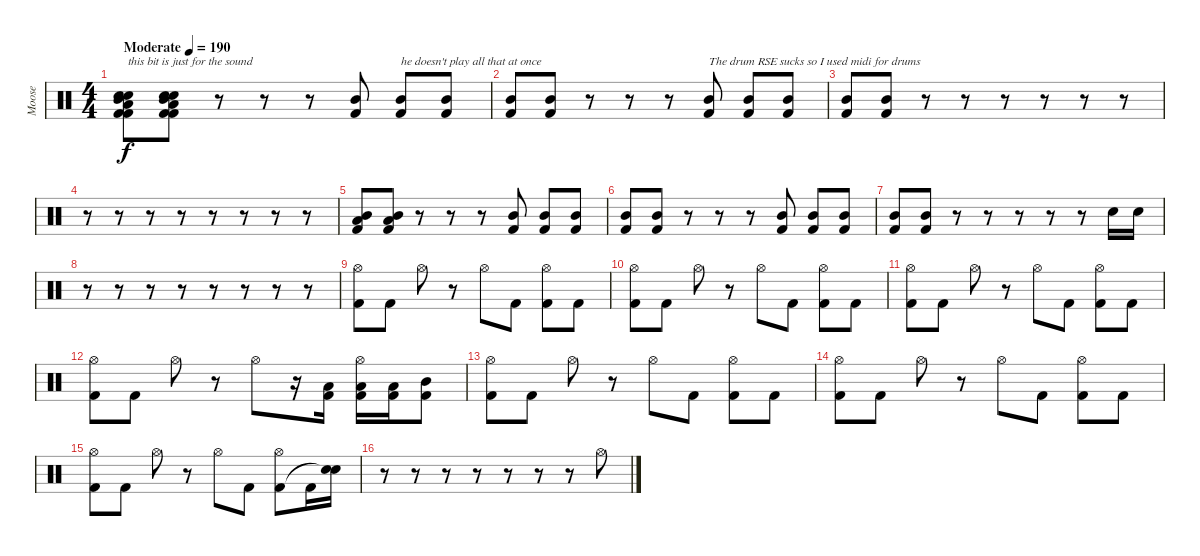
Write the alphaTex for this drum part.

\track ("Moose" "Moose") {instrument percussion}
\staff {score}
\articulation defaults
\ts (4 4)
\tempo (190 "Moderate")
\clef neutral
\ks c
("Low Tom (hit)" "Kick (hit) 2" "Mid Tom (hit)" "Electric Snare (hit)" "Snare (hit) 2" "Kick (hit) 2").8{txt "this bit is just for the sound" dy f} ("Low Tom (hit)" "Kick (hit) 2" "Mid Tom (hit)" "Electric Snare (hit)" "Snare (hit) 2" "Kick (hit) 2").8 r.8 r.8 r.8 ("Mid Tom (hit)" "Kick (hit) 2").8 ("Mid Tom (hit)" "Kick (hit) 2").8{txt "he doesn't play all that at once"} ("Mid Tom (hit)" "Kick (hit) 2").8 |
("Mid Tom (hit)" "Kick (hit) 2").8 ("Mid Tom (hit)" "Kick (hit) 2").8 r.8 r.8 r.8 ("Mid Tom (hit)" "Kick (hit) 2").8{txt "The drum RSE sucks so I used midi for drums"} ("Mid Tom (hit)" "Kick (hit) 2").8 ("Mid Tom (hit)" "Kick (hit) 2").8 |
("Mid Tom (hit)" "Kick (hit) 2").8 ("Mid Tom (hit)" "Kick (hit) 2").8 r.8 r.8 r.8 r.8 r.8 r.8 |
r.8 r.8 r.8 r.8 r.8 r.8 r.8 r.8 |
("Low Tom (hit)" "Mid Tom (hit)" "Kick (hit) 2").8 ("Low Tom (hit)" "Mid Tom (hit)" "Kick (hit) 2").8 r.8 r.8 r.8 ("Mid Tom (hit)" "Kick (hit) 2").8 ("Mid Tom (hit)" "Kick (hit) 2").8 ("Mid Tom (hit)" "Kick (hit) 2").8 |
("Mid Tom (hit)" "Kick (hit) 2").8 ("Mid Tom (hit)" "Kick (hit) 2").8 r.8 r.8 r.8 ("Mid Tom (hit)" "Kick (hit) 2").8 ("Mid Tom (hit)" "Kick (hit) 2").8 ("Mid Tom (hit)" "Kick (hit) 2").8 |
("Mid Tom (hit)" "Kick (hit) 2").8 ("Mid Tom (hit)" "Kick (hit) 2").8 r.8 r.8 r.8 r.8 r.8 "Electric Snare (hit)".16 "Snare (hit) 2".16 |
r.8 r.8 r.8 r.8 r.8 r.8 r.8 r.8 |
("Hi-Hat (open)" "Kick (hit) 2").8 "Kick (hit) 2".8 "Hi-Hat (open)".8 r.8 "Hi-Hat (open)".8 "Kick (hit) 2".8 ("Hi-Hat (open)" "Kick (hit) 2").8 "Kick (hit) 2".8 |
("Hi-Hat (open)" "Kick (hit) 2").8 "Kick (hit) 2".8 "Hi-Hat (open)".8 r.8 "Hi-Hat (open)".8 "Kick (hit) 2".8 ("Hi-Hat (open)" "Kick (hit) 2").8 "Kick (hit) 2".8 |
("Hi-Hat (open)" "Kick (hit) 2").8 "Kick (hit) 2".8 "Hi-Hat (open)".8 r.8 "Hi-Hat (open)".8 "Kick (hit) 2".8 ("Hi-Hat (open)" "Kick (hit) 2").8 "Kick (hit) 2".8 |
("Hi-Hat (open)" "Kick (hit) 2").8 "Kick (hit) 2".8 "Hi-Hat (open)".8 r.8 "Hi-Hat (open)".8 r.16 ("Low Tom (hit)" "Kick (hit) 2").16 ("Hi-Hat (open)" "Low Tom (hit)" "Kick (hit) 2").16 ("Low Tom (hit)" "Kick (hit) 2").16 ("Mid Tom (hit)" "Kick (hit) 2").8 |
("Hi-Hat (open)" "Kick (hit) 2").8 "Kick (hit) 2".8 "Hi-Hat (open)".8 r.8 "Hi-Hat (open)".8 "Kick (hit) 2".8 ("Hi-Hat (open)" "Kick (hit) 2").8 "Kick (hit) 2".8 |
("Hi-Hat (open)" "Kick (hit) 2").8 "Kick (hit) 2".8 "Hi-Hat (open)".8 r.8 "Hi-Hat (open)".8 "Kick (hit) 2".8 ("Hi-Hat (open)" "Kick (hit) 2").8 "Kick (hit) 2".8 |
("Hi-Hat (open)" "Kick (hit) 2").8 "Kick (hit) 2".8 "Hi-Hat (open)".8 r.8 "Hi-Hat (open)".8 "Kick (hit) 2".8 ("Hi-Hat (open)" "Kick (hit) 2").8 "Kick (hit) 2".16 ("Snare (hit) 2" "Snare (hit)"{t}).16 |
r.8 r.8 r.8 r.8 r.8 r.8 r.8 "Hi-Hat (open)".8
